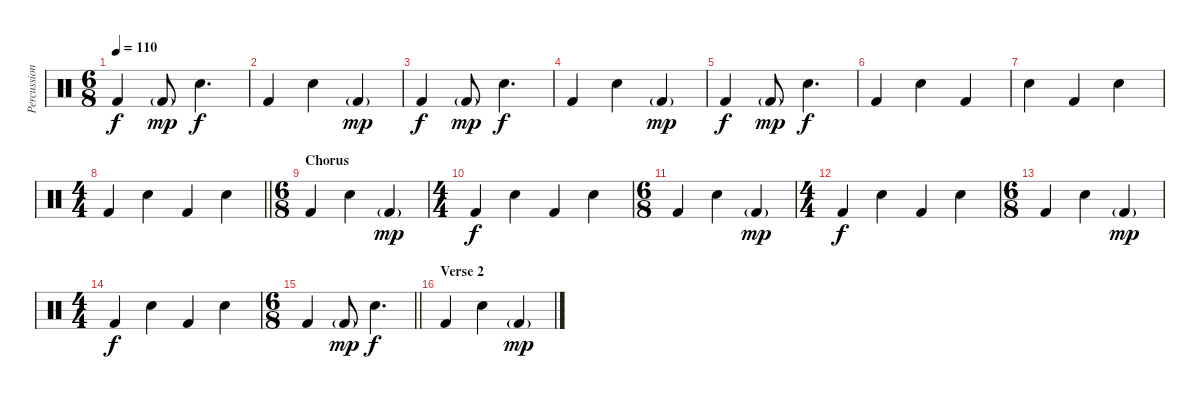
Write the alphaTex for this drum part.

\track ("Percussion" "Percussion") {instrument percussion}
\staff {score}
\articulation defaults
\ts (6 8)
\tempo 110
\clef neutral
\ks c "Kick (hit) 2".4{dy f} "Kick (hit) 2"{g}.8{dy mp} "Snare (hit) 2".4{d dy f}
|
"Kick (hit) 2".4 "Snare (hit) 2".4 "Kick (hit) 2"{g}.4{dy mp} |
"Kick (hit) 2".4{dy f} "Kick (hit) 2"{g}.8{dy mp} "Snare (hit) 2".4{d dy f} |
"Kick (hit) 2".4 "Snare (hit) 2".4 "Kick (hit) 2"{g}.4{dy mp} |
"Kick (hit) 2".4{dy f} "Kick (hit) 2"{g}.8{dy mp} "Snare (hit) 2".4{d dy f} |
"Kick (hit) 2".4 "Snare (hit) 2".4 "Kick (hit) 2".4 |
"Snare (hit) 2".4 "Kick (hit) 2".4 "Snare (hit) 2".4 |
\ts (4 4)
\barLineRight lightlight "Kick (hit) 2".4 "Snare (hit) 2".4 "Kick (hit) 2".4 "Snare (hit) 2".4
|
\ts (6 8)
\section ("" "Chorus")
"Kick (hit) 2".4 "Snare (hit) 2".4 "Kick (hit) 2"{g}.4{dy mp} |
\ts (4 4)
"Kick (hit) 2".4{dy f} "Snare (hit) 2".4 "Kick (hit) 2".4 "Snare (hit) 2".4 |
\ts (6 8)
"Kick (hit) 2".4 "Snare (hit) 2".4 "Kick (hit) 2"{g}.4{dy mp} |
\ts (4 4)
"Kick (hit) 2".4{dy f} "Snare (hit) 2".4 "Kick (hit) 2".4 "Snare (hit) 2".4 |
\ts (6 8)
"Kick (hit) 2".4 "Snare (hit) 2".4 "Kick (hit) 2"{g}.4{dy mp} |
\ts (4 4)
"Kick (hit) 2".4{dy f} "Snare (hit) 2".4 "Kick (hit) 2".4 "Snare (hit) 2".4 |
\ts (6 8)
\barLineRight lightlight "Kick (hit) 2".4 "Kick (hit) 2"{g}.8{dy mp} "Snare (hit) 2".4{d dy f}
|
\section ("" "Verse 2")
"Kick (hit) 2".4 "Snare (hit) 2".4 "Kick (hit) 2"{g}.4{dy mp}
